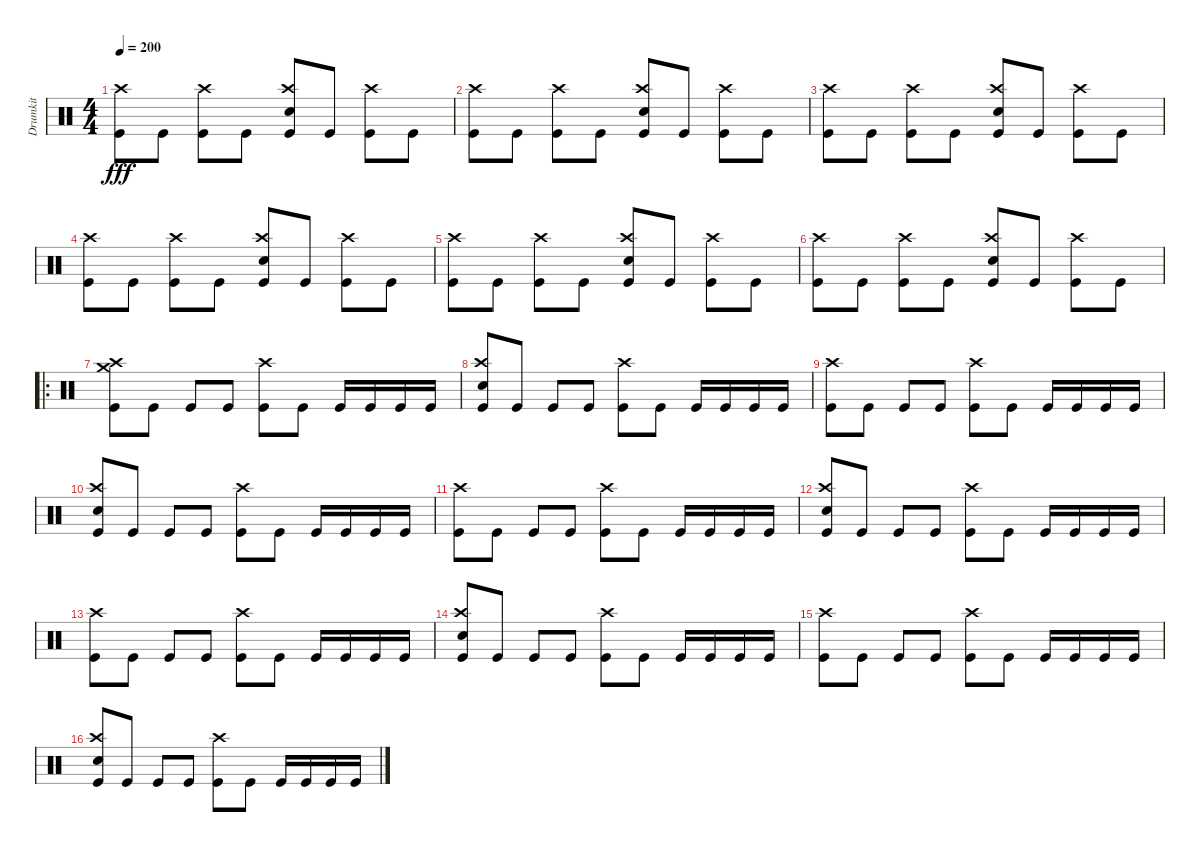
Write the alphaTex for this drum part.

\track ("Drumkit" "Drumkit") {instrument percussion}
\staff {score}
\articulation defaults
\ts (4 4)
\tempo 200
\clef neutral
\ks c
("Kick (hit)" "Crash high (hit)").8{dy fff} "Kick (hit)".8 ("Crash high (hit)" "Kick (hit)").8 "Kick (hit)".8 ("Snare (hit) 2" "Kick (hit)" "Crash high (hit)").8 "Kick (hit)".8 ("Crash high (hit)" "Kick (hit)").8 "Kick (hit)".8 |
("Kick (hit)" "Crash high (hit)").8 "Kick (hit)".8 ("Crash high (hit)" "Kick (hit)").8 "Kick (hit)".8 ("Snare (hit) 2" "Kick (hit)" "Crash high (hit)").8 "Kick (hit)".8 ("Crash high (hit)" "Kick (hit)").8 "Kick (hit)".8 |
("Kick (hit)" "Crash high (hit)").8 "Kick (hit)".8 ("Crash high (hit)" "Kick (hit)").8 "Kick (hit)".8 ("Snare (hit) 2" "Kick (hit)" "Crash high (hit)").8 "Kick (hit)".8 ("Crash high (hit)" "Kick (hit)").8 "Kick (hit)".8 |
("Kick (hit)" "Crash high (hit)").8 "Kick (hit)".8 ("Crash high (hit)" "Kick (hit)").8 "Kick (hit)".8 ("Snare (hit) 2" "Kick (hit)" "Crash high (hit)").8 "Kick (hit)".8 ("Crash high (hit)" "Kick (hit)").8 "Kick (hit)".8 |
("Kick (hit)" "Crash high (hit)").8 "Kick (hit)".8 ("Crash high (hit)" "Kick (hit)").8 "Kick (hit)".8 ("Snare (hit) 2" "Kick (hit)" "Crash high (hit)").8 "Kick (hit)".8 ("Crash high (hit)" "Kick (hit)").8 "Kick (hit)".8 |
("Kick (hit)" "Crash high (hit)").8 "Kick (hit)".8 ("Crash high (hit)" "Kick (hit)").8 "Kick (hit)".8 ("Snare (hit) 2" "Kick (hit)" "Crash high (hit)").8 "Kick (hit)".8 ("Crash high (hit)" "Kick (hit)").8 "Kick (hit)".8 |
\ro
("Kick (hit)" "Crash high (hit)" "Crash medium (hit)").8 "Kick (hit)".8 "Kick (hit)".8 "Kick (hit)".8 ("Kick (hit)" "Crash high (hit)").8 "Kick (hit)".8 "Kick (hit)".16 "Kick (hit)".16 "Kick (hit)".16 "Kick (hit)".16 |
("Kick (hit)" "Crash high (hit)" "Snare (hit) 2").8 "Kick (hit)".8 "Kick (hit)".8 "Kick (hit)".8 ("Kick (hit)" "Crash high (hit)").8 "Kick (hit)".8 "Kick (hit)".16 "Kick (hit)".16 "Kick (hit)".16 "Kick (hit)".16 |
("Kick (hit)" "Crash high (hit)").8 "Kick (hit)".8 "Kick (hit)".8 "Kick (hit)".8 ("Kick (hit)" "Crash high (hit)").8 "Kick (hit)".8 "Kick (hit)".16 "Kick (hit)".16 "Kick (hit)".16 "Kick (hit)".16 |
("Kick (hit)" "Crash high (hit)" "Snare (hit) 2").8 "Kick (hit)".8 "Kick (hit)".8 "Kick (hit)".8 ("Kick (hit)" "Crash high (hit)").8 "Kick (hit)".8 "Kick (hit)".16 "Kick (hit)".16 "Kick (hit)".16 "Kick (hit)".16 |
("Kick (hit)" "Crash high (hit)").8 "Kick (hit)".8 "Kick (hit)".8 "Kick (hit)".8 ("Kick (hit)" "Crash high (hit)").8 "Kick (hit)".8 "Kick (hit)".16 "Kick (hit)".16 "Kick (hit)".16 "Kick (hit)".16 |
("Kick (hit)" "Crash high (hit)" "Snare (hit) 2").8 "Kick (hit)".8 "Kick (hit)".8 "Kick (hit)".8 ("Kick (hit)" "Crash high (hit)").8 "Kick (hit)".8 "Kick (hit)".16 "Kick (hit)".16 "Kick (hit)".16 "Kick (hit)".16 |
("Kick (hit)" "Crash high (hit)").8 "Kick (hit)".8 "Kick (hit)".8 "Kick (hit)".8 ("Kick (hit)" "Crash high (hit)").8 "Kick (hit)".8 "Kick (hit)".16 "Kick (hit)".16 "Kick (hit)".16 "Kick (hit)".16 |
("Kick (hit)" "Crash high (hit)" "Snare (hit) 2").8 "Kick (hit)".8 "Kick (hit)".8 "Kick (hit)".8 ("Kick (hit)" "Crash high (hit)").8 "Kick (hit)".8 "Kick (hit)".16 "Kick (hit)".16 "Kick (hit)".16 "Kick (hit)".16 |
("Kick (hit)" "Crash high (hit)").8 "Kick (hit)".8 "Kick (hit)".8 "Kick (hit)".8 ("Kick (hit)" "Crash high (hit)").8 "Kick (hit)".8 "Kick (hit)".16 "Kick (hit)".16 "Kick (hit)".16 "Kick (hit)".16 |
("Kick (hit)" "Crash high (hit)" "Snare (hit) 2").8 "Kick (hit)".8 "Kick (hit)".8 "Kick (hit)".8 ("Kick (hit)" "Crash high (hit)").8 "Kick (hit)".8 "Kick (hit)".16 "Kick (hit)".16 "Kick (hit)".16 "Kick (hit)".16
